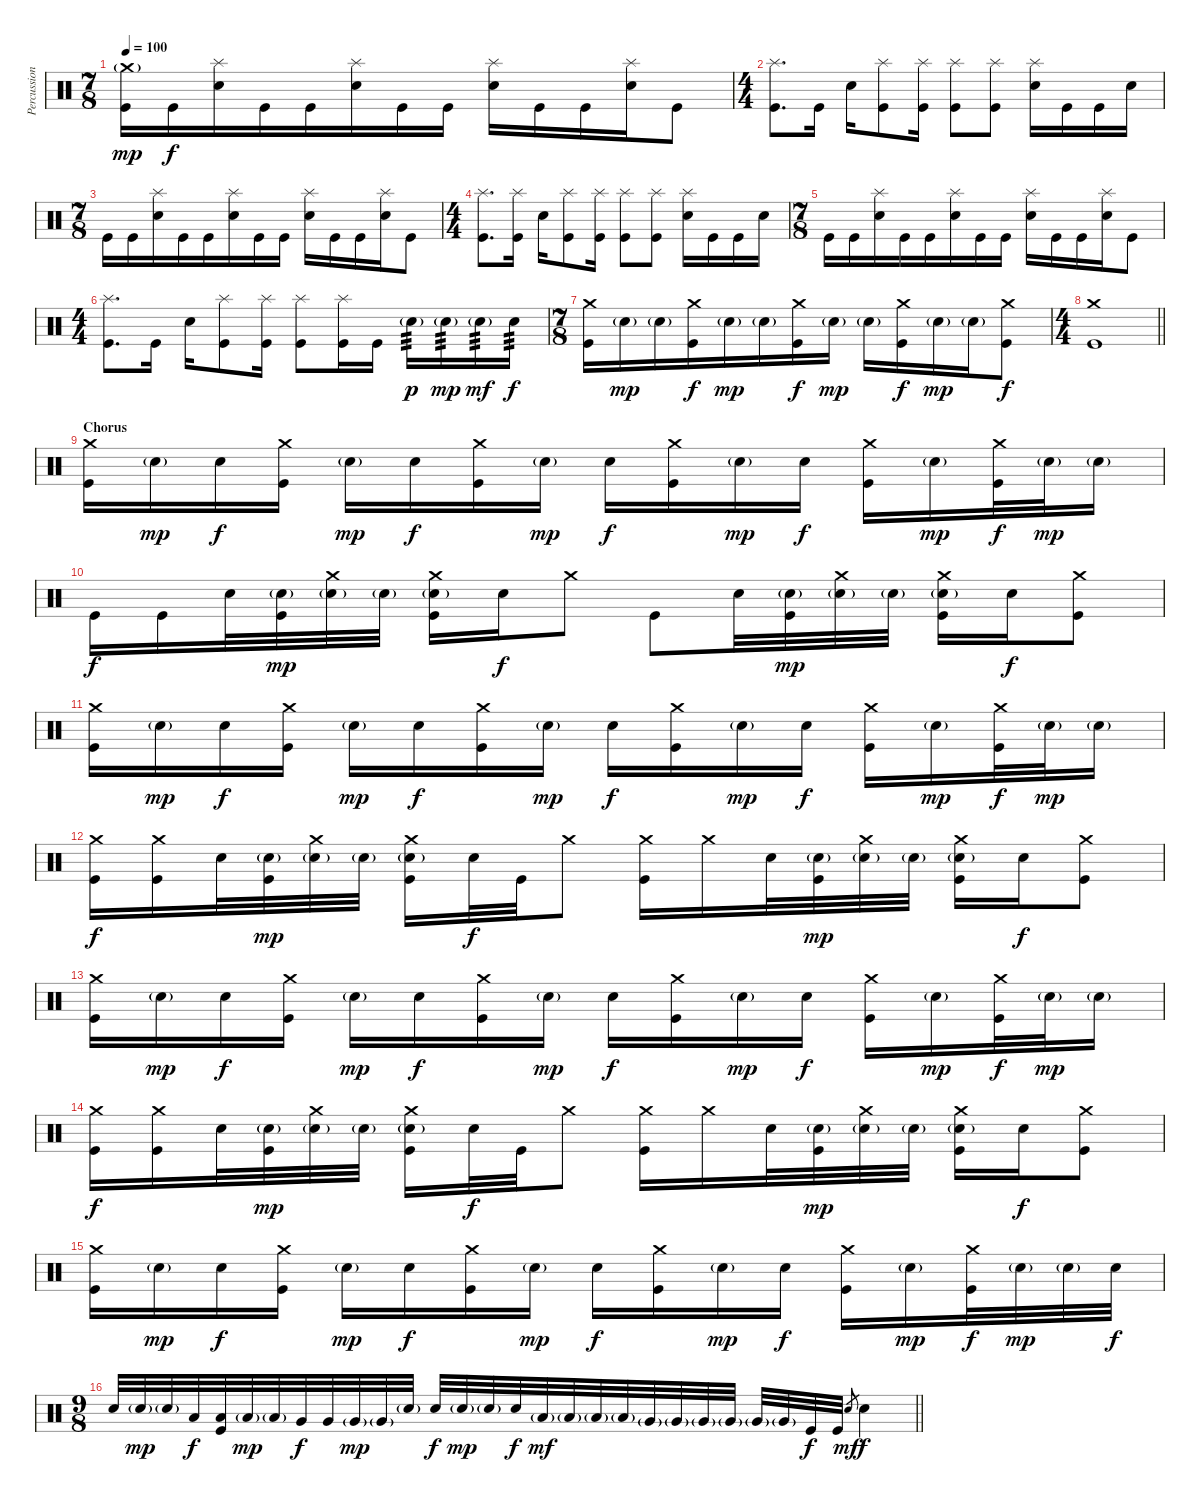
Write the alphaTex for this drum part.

\track ("Percussion" "Percussion") {instrument percussion}
\staff {score}
\articulation defaults
\ts (7 8)
\tempo 100
\clef neutral
\ks c
("Crash medium (hit)"{g} "Kick (hit)").16{dy mp} "Kick (hit)".16{dy f} ("Splash (hit)" "Snare (hit) 2").16 "Kick (hit)".16 "Kick (hit)".16 ("Splash (hit)" "Snare (hit) 2").16 "Kick (hit)".16 "Kick (hit)".16 ("Splash (hit)" "Snare (hit) 2").16 "Kick (hit)".16 "Kick (hit)".16 ("Splash (hit)" "Snare (hit) 2").16 "Kick (hit)".8 |
\ts (4 4)
("Splash (hit)" "Kick (hit)").8{d} "Kick (hit)".16 "Snare (hit) 2".16 ("Splash (hit)" "Kick (hit)").8 ("Splash (hit)" "Kick (hit)").16 ("Splash (hit)" "Kick (hit)").8 ("Splash (hit)" "Kick (hit)").8 ("Splash (hit)" "Snare (hit) 2").16 "Kick (hit)".16 "Kick (hit)".16 "Snare (hit) 2".16 |
\ts (7 8)
"Kick (hit)".16 "Kick (hit)".16 ("Splash (hit)" "Snare (hit) 2").16 "Kick (hit)".16 "Kick (hit)".16 ("Splash (hit)" "Snare (hit) 2").16 "Kick (hit)".16 "Kick (hit)".16 ("Splash (hit)" "Snare (hit) 2").16 "Kick (hit)".16 "Kick (hit)".16 ("Splash (hit)" "Snare (hit) 2").16 "Kick (hit)".8 |
\ts (4 4)
("Splash (hit)" "Kick (hit)").8{d} ("Splash (hit)" "Kick (hit)").16 "Snare (hit) 2".16 ("Splash (hit)" "Kick (hit)").8 ("Splash (hit)" "Kick (hit)").16 ("Splash (hit)" "Kick (hit)").8 ("Splash (hit)" "Kick (hit)").8 ("Splash (hit)" "Snare (hit) 2").16 "Kick (hit)".16 "Kick (hit)".16 "Snare (hit) 2".16 |
\ts (7 8)
"Kick (hit)".16 "Kick (hit)".16 ("Splash (hit)" "Snare (hit) 2").16 "Kick (hit)".16 "Kick (hit)".16 ("Splash (hit)" "Snare (hit) 2").16 "Kick (hit)".16 "Kick (hit)".16 ("Splash (hit)" "Snare (hit) 2").16 "Kick (hit)".16 "Kick (hit)".16 ("Splash (hit)" "Snare (hit) 2").16 "Kick (hit)".8 |
\ts (4 4)
("Splash (hit)" "Kick (hit)").8{d} "Kick (hit)".16 "Snare (hit) 2".16 ("Splash (hit)" "Kick (hit)").8 ("Splash (hit)" "Kick (hit)").16 ("Splash (hit)" "Kick (hit)").8 ("Splash (hit)" "Kick (hit)").16 "Kick (hit)".16 "Snare (hit) 2"{g}.16{tp 3 dy p} "Snare (hit) 2"{g}.16{tp 3 dy mp} "Snare (hit) 2"{g}.16{tp 3 dy mf} "Snare (hit) 2".16{tp 3 dy f} |
\ts (7 8)
("Crash medium (hit)" "Kick (hit)").16 "Snare (hit) 2"{g}.16{dy mp} "Snare (hit) 2"{g}.16 ("Crash medium (hit)" "Kick (hit)").16{dy f} "Snare (hit) 2"{g}.16{dy mp} "Snare (hit) 2"{g}.16 ("Crash medium (hit)" "Kick (hit)").16{dy f} "Snare (hit) 2"{g}.16{dy mp} "Snare (hit) 2"{g}.16 ("Crash medium (hit)" "Kick (hit)").16{dy f} "Snare (hit) 2"{g}.16{dy mp} "Snare (hit) 2"{g}.16 ("Crash medium (hit)" "Kick (hit)").8{dy f} |
\ts (4 4)
\barLineRight lightlight
("Crash medium (hit)" "Kick (hit)").1 |
\section ("" "Chorus")
("Crash medium (hit)" "Kick (hit)").16 "Snare (hit) 2"{g}.16{dy mp} "Snare (hit) 2".16{dy f} ("Crash medium (hit)" "Kick (hit)").16 "Snare (hit) 2"{g}.16{dy mp} "Snare (hit) 2".16{dy f} ("Crash medium (hit)" "Kick (hit)").16 "Snare (hit) 2"{g}.16{dy mp} "Snare (hit) 2".16{dy f} ("Crash medium (hit)" "Kick (hit)").16 "Snare (hit) 2"{g}.16{dy mp} "Snare (hit) 2".16{dy f} ("Crash medium (hit)" "Kick (hit)").16 "Snare (hit) 2"{g}.16{dy mp} ("Crash medium (hit)" "Kick (hit)").32{dy f} "Snare (hit) 2"{g}.32{dy mp} "Snare (hit) 2"{g}.16 |
"Kick (hit)".16{dy f} "Kick (hit)".16 "Snare (hit) 2".32 ("Snare (hit) 2"{g} "Kick (hit)").32{dy mp} ("Crash medium (hit)" "Snare (hit) 2"{g}).32 "Snare (hit) 2"{g}.32 ("Crash medium (hit)" "Snare (hit) 2"{g} "Kick (hit)").16 "Snare (hit) 2".16{dy f} "Crash medium (hit)".8 "Kick (hit)".8 "Snare (hit) 2".32 ("Snare (hit) 2"{g} "Kick (hit)").32{dy mp} ("Crash medium (hit)" "Snare (hit) 2"{g}).32 "Snare (hit) 2"{g}.32 ("Crash medium (hit)" "Snare (hit) 2"{g} "Kick (hit)").16 "Snare (hit) 2".16{dy f} ("Crash medium (hit)" "Kick (hit)").8 |
("Crash medium (hit)" "Kick (hit)").16 "Snare (hit) 2"{g}.16{dy mp} "Snare (hit) 2".16{dy f} ("Crash medium (hit)" "Kick (hit)").16 "Snare (hit) 2"{g}.16{dy mp} "Snare (hit) 2".16{dy f} ("Crash medium (hit)" "Kick (hit)").16 "Snare (hit) 2"{g}.16{dy mp} "Snare (hit) 2".16{dy f} ("Crash medium (hit)" "Kick (hit)").16 "Snare (hit) 2"{g}.16{dy mp} "Snare (hit) 2".16{dy f} ("Crash medium (hit)" "Kick (hit)").16 "Snare (hit) 2"{g}.16{dy mp} ("Crash medium (hit)" "Kick (hit)").32{dy f} "Snare (hit) 2"{g}.32{dy mp} "Snare (hit) 2"{g}.16 |
("Crash medium (hit)" "Kick (hit)").16{dy f} ("Crash medium (hit)" "Kick (hit)").16 "Snare (hit) 2".32 ("Snare (hit) 2"{g} "Kick (hit)").32{dy mp} ("Crash medium (hit)" "Snare (hit) 2"{g}).32 "Snare (hit) 2"{g}.32 ("Crash medium (hit)" "Snare (hit) 2"{g} "Kick (hit)").16 "Snare (hit) 2".32{dy f} "Kick (hit)".32 "Crash medium (hit)".8 ("Crash medium (hit)" "Kick (hit)").16 "Crash medium (hit)".16 "Snare (hit) 2".32 ("Snare (hit) 2"{g} "Kick (hit)").32{dy mp} ("Crash medium (hit)" "Snare (hit) 2"{g}).32 "Snare (hit) 2"{g}.32 ("Crash medium (hit)" "Snare (hit) 2"{g} "Kick (hit)").16 "Snare (hit) 2".16{dy f} ("Crash medium (hit)" "Kick (hit)").8 |
("Crash medium (hit)" "Kick (hit)").16 "Snare (hit) 2"{g}.16{dy mp} "Snare (hit) 2".16{dy f} ("Crash medium (hit)" "Kick (hit)").16 "Snare (hit) 2"{g}.16{dy mp} "Snare (hit) 2".16{dy f} ("Crash medium (hit)" "Kick (hit)").16 "Snare (hit) 2"{g}.16{dy mp} "Snare (hit) 2".16{dy f} ("Crash medium (hit)" "Kick (hit)").16 "Snare (hit) 2"{g}.16{dy mp} "Snare (hit) 2".16{dy f} ("Crash medium (hit)" "Kick (hit)").16 "Snare (hit) 2"{g}.16{dy mp} ("Crash medium (hit)" "Kick (hit)").32{dy f} "Snare (hit) 2"{g}.32{dy mp} "Snare (hit) 2"{g}.16 |
("Crash medium (hit)" "Kick (hit)").16{dy f} ("Crash medium (hit)" "Kick (hit)").16 "Snare (hit) 2".32 ("Snare (hit) 2"{g} "Kick (hit)").32{dy mp} ("Crash medium (hit)" "Snare (hit) 2"{g}).32 "Snare (hit) 2"{g}.32 ("Crash medium (hit)" "Snare (hit) 2"{g} "Kick (hit)").16 "Snare (hit) 2".32{dy f} "Kick (hit)".32 "Crash medium (hit)".8 ("Crash medium (hit)" "Kick (hit)").16 "Crash medium (hit)".16 "Snare (hit) 2".32 ("Snare (hit) 2"{g} "Kick (hit)").32{dy mp} ("Crash medium (hit)" "Snare (hit) 2"{g}).32 "Snare (hit) 2"{g}.32 ("Crash medium (hit)" "Snare (hit) 2"{g} "Kick (hit)").16 "Snare (hit) 2".16{dy f} ("Crash medium (hit)" "Kick (hit)").8 |
("Crash medium (hit)" "Kick (hit)").16 "Snare (hit) 2"{g}.16{dy mp} "Snare (hit) 2".16{dy f} ("Crash medium (hit)" "Kick (hit)").16 "Snare (hit) 2"{g}.16{dy mp} "Snare (hit) 2".16{dy f} ("Crash medium (hit)" "Kick (hit)").16 "Snare (hit) 2"{g}.16{dy mp} "Snare (hit) 2".16{dy f} ("Crash medium (hit)" "Kick (hit)").16 "Snare (hit) 2"{g}.16{dy mp} "Snare (hit) 2".16{dy f} ("Crash medium (hit)" "Kick (hit)").16 "Snare (hit) 2"{g}.16{dy mp} ("Crash medium (hit)" "Kick (hit)").32{dy f} "Snare (hit) 2"{g}.32{dy mp} "Snare (hit) 2"{g}.32 "Snare (hit) 2".32{dy f} |
\ts (9 8)
\barLineRight lightlight "Snare (hit) 2".32 "Snare (hit) 2"{g}.32{dy mp} "Snare (hit) 2"{g}.32 "Low Floor Tom (hit)".32{dy f}
("Kick (hit)" "Low Floor Tom (hit)").32 "Low Floor Tom (hit)"{g}.32{dy mp} "Low Floor Tom (hit)"{g}.32 "Very Low Tom (hit)".32{dy f} "Very Low Tom (hit)".32 "Very Low Tom (hit)"{g}.32{dy mp} "Very Low Tom (hit)"{g}.32 "Snare (hit) 2"{g}.32 "Snare (hit) 2".32{dy f} "Snare (hit) 2"{g}.32{dy mp} "Snare (hit) 2"{g}.32 "Snare (hit) 2".32{dy f} "Low Tom (hit)"{g}.32{dy mf} "Low Tom (hit)"{g}.32 "Low Tom (hit)"{g}.32 "Low Tom (hit)"{g}.32 "Very Low Tom (hit)"{g}.32 "Very Low Tom (hit)"{g}.32 "Very Low Tom (hit)"{g}.32 "Very Low Tom (hit)"{g}.32 "Very Low Tom (hit)"{g}.32 "Very Low Tom (hit)"{g}.32 "Kick (hit)".32{dy f} "Kick (hit)".32 "Snare (hit) 2".8{gr dy mf} "Snare (hit) 2".4{dy f}
